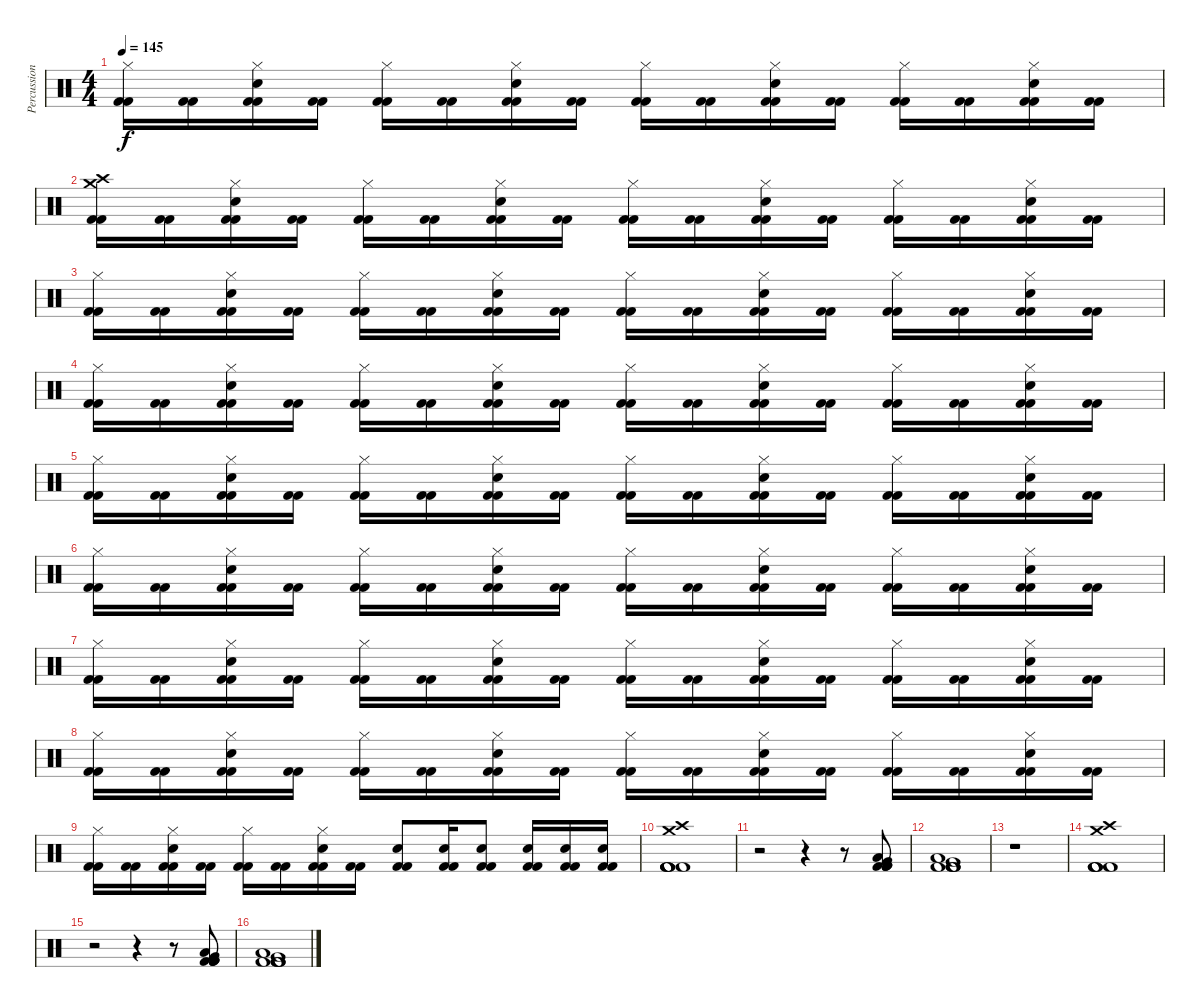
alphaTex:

\track ("Percussion" "Percussion") {instrument percussion}
\staff {score}
\articulation defaults
\ts (4 4)
\tempo 145
\clef neutral
\ks c
("Hi-Hat (closed)" "Kick (hit) 2" "Kick (hit) 2").16{dy f} ("Kick (hit) 2" "Kick (hit) 2").16 ("Hi-Hat (closed)" "Snare (hit) 2" "Kick (hit) 2" "Kick (hit) 2").16 ("Kick (hit) 2" "Kick (hit) 2").16 ("Hi-Hat (closed)" "Kick (hit) 2" "Kick (hit) 2").16 ("Kick (hit) 2" "Kick (hit) 2").16 ("Hi-Hat (closed)" "Snare (hit) 2" "Kick (hit) 2" "Kick (hit) 2").16 ("Kick (hit) 2" "Kick (hit) 2").16 ("Hi-Hat (closed)" "Kick (hit) 2" "Kick (hit) 2").16 ("Kick (hit) 2" "Kick (hit) 2").16 ("Hi-Hat (closed)" "Snare (hit) 2" "Kick (hit) 2" "Kick (hit) 2").16 ("Kick (hit) 2" "Kick (hit) 2").16 ("Hi-Hat (closed)" "Kick (hit) 2" "Kick (hit) 2").16 ("Kick (hit) 2" "Kick (hit) 2").16 ("Hi-Hat (closed)" "Snare (hit) 2" "Kick (hit) 2" "Kick (hit) 2").16 ("Kick (hit) 2" "Kick (hit) 2").16 |
("Crash high (hit)" "Crash medium (hit)" "Kick (hit) 2" "Kick (hit) 2").16 ("Kick (hit) 2" "Kick (hit) 2").16 ("Hi-Hat (closed)" "Snare (hit) 2" "Kick (hit) 2" "Kick (hit) 2").16 ("Kick (hit) 2" "Kick (hit) 2").16 ("Hi-Hat (closed)" "Kick (hit) 2" "Kick (hit) 2").16 ("Kick (hit) 2" "Kick (hit) 2").16 ("Hi-Hat (closed)" "Snare (hit) 2" "Kick (hit) 2" "Kick (hit) 2").16 ("Kick (hit) 2" "Kick (hit) 2").16 ("Hi-Hat (closed)" "Kick (hit) 2" "Kick (hit) 2").16 ("Kick (hit) 2" "Kick (hit) 2").16 ("Hi-Hat (closed)" "Snare (hit) 2" "Kick (hit) 2" "Kick (hit) 2").16 ("Kick (hit) 2" "Kick (hit) 2").16 ("Hi-Hat (closed)" "Kick (hit) 2" "Kick (hit) 2").16 ("Kick (hit) 2" "Kick (hit) 2").16 ("Hi-Hat (closed)" "Snare (hit) 2" "Kick (hit) 2" "Kick (hit) 2").16 ("Kick (hit) 2" "Kick (hit) 2").16 |
("Hi-Hat (closed)" "Kick (hit) 2" "Kick (hit) 2").16 ("Kick (hit) 2" "Kick (hit) 2").16 ("Hi-Hat (closed)" "Snare (hit) 2" "Kick (hit) 2" "Kick (hit) 2").16 ("Kick (hit) 2" "Kick (hit) 2").16 ("Hi-Hat (closed)" "Kick (hit) 2" "Kick (hit) 2").16 ("Kick (hit) 2" "Kick (hit) 2").16 ("Hi-Hat (closed)" "Snare (hit) 2" "Kick (hit) 2" "Kick (hit) 2").16 ("Kick (hit) 2" "Kick (hit) 2").16 ("Hi-Hat (closed)" "Kick (hit) 2" "Kick (hit) 2").16 ("Kick (hit) 2" "Kick (hit) 2").16 ("Hi-Hat (closed)" "Snare (hit) 2" "Kick (hit) 2" "Kick (hit) 2").16 ("Kick (hit) 2" "Kick (hit) 2").16 ("Hi-Hat (closed)" "Kick (hit) 2" "Kick (hit) 2").16 ("Kick (hit) 2" "Kick (hit) 2").16 ("Hi-Hat (closed)" "Snare (hit) 2" "Kick (hit) 2" "Kick (hit) 2").16 ("Kick (hit) 2" "Kick (hit) 2").16 |
("Hi-Hat (closed)" "Kick (hit) 2" "Kick (hit) 2").16 ("Kick (hit) 2" "Kick (hit) 2").16 ("Hi-Hat (closed)" "Snare (hit) 2" "Kick (hit) 2" "Kick (hit) 2").16 ("Kick (hit) 2" "Kick (hit) 2").16 ("Hi-Hat (closed)" "Kick (hit) 2" "Kick (hit) 2").16 ("Kick (hit) 2" "Kick (hit) 2").16 ("Hi-Hat (closed)" "Snare (hit) 2" "Kick (hit) 2" "Kick (hit) 2").16 ("Kick (hit) 2" "Kick (hit) 2").16 ("Hi-Hat (closed)" "Kick (hit) 2" "Kick (hit) 2").16 ("Kick (hit) 2" "Kick (hit) 2").16 ("Hi-Hat (closed)" "Snare (hit) 2" "Kick (hit) 2" "Kick (hit) 2").16 ("Kick (hit) 2" "Kick (hit) 2").16 ("Hi-Hat (closed)" "Kick (hit) 2" "Kick (hit) 2").16 ("Kick (hit) 2" "Kick (hit) 2").16 ("Hi-Hat (closed)" "Snare (hit) 2" "Kick (hit) 2" "Kick (hit) 2").16 ("Kick (hit) 2" "Kick (hit) 2").16 |
("Hi-Hat (closed)" "Kick (hit) 2" "Kick (hit) 2").16 ("Kick (hit) 2" "Kick (hit) 2").16 ("Hi-Hat (closed)" "Snare (hit) 2" "Kick (hit) 2" "Kick (hit) 2").16 ("Kick (hit) 2" "Kick (hit) 2").16 ("Hi-Hat (closed)" "Kick (hit) 2" "Kick (hit) 2").16 ("Kick (hit) 2" "Kick (hit) 2").16 ("Hi-Hat (closed)" "Snare (hit) 2" "Kick (hit) 2" "Kick (hit) 2").16 ("Kick (hit) 2" "Kick (hit) 2").16 ("Hi-Hat (closed)" "Kick (hit) 2" "Kick (hit) 2").16 ("Kick (hit) 2" "Kick (hit) 2").16 ("Hi-Hat (closed)" "Snare (hit) 2" "Kick (hit) 2" "Kick (hit) 2").16 ("Kick (hit) 2" "Kick (hit) 2").16 ("Hi-Hat (closed)" "Kick (hit) 2" "Kick (hit) 2").16 ("Kick (hit) 2" "Kick (hit) 2").16 ("Hi-Hat (closed)" "Snare (hit) 2" "Kick (hit) 2" "Kick (hit) 2").16 ("Kick (hit) 2" "Kick (hit) 2").16 |
("Hi-Hat (closed)" "Kick (hit) 2" "Kick (hit) 2").16 ("Kick (hit) 2" "Kick (hit) 2").16 ("Hi-Hat (closed)" "Snare (hit) 2" "Kick (hit) 2" "Kick (hit) 2").16 ("Kick (hit) 2" "Kick (hit) 2").16 ("Hi-Hat (closed)" "Kick (hit) 2" "Kick (hit) 2").16 ("Kick (hit) 2" "Kick (hit) 2").16 ("Hi-Hat (closed)" "Snare (hit) 2" "Kick (hit) 2" "Kick (hit) 2").16 ("Kick (hit) 2" "Kick (hit) 2").16 ("Hi-Hat (closed)" "Kick (hit) 2" "Kick (hit) 2").16 ("Kick (hit) 2" "Kick (hit) 2").16 ("Hi-Hat (closed)" "Snare (hit) 2" "Kick (hit) 2" "Kick (hit) 2").16 ("Kick (hit) 2" "Kick (hit) 2").16 ("Hi-Hat (closed)" "Kick (hit) 2" "Kick (hit) 2").16 ("Kick (hit) 2" "Kick (hit) 2").16 ("Hi-Hat (closed)" "Snare (hit) 2" "Kick (hit) 2" "Kick (hit) 2").16 ("Kick (hit) 2" "Kick (hit) 2").16 |
("Hi-Hat (closed)" "Kick (hit) 2" "Kick (hit) 2").16 ("Kick (hit) 2" "Kick (hit) 2").16 ("Hi-Hat (closed)" "Snare (hit) 2" "Kick (hit) 2" "Kick (hit) 2").16 ("Kick (hit) 2" "Kick (hit) 2").16 ("Hi-Hat (closed)" "Kick (hit) 2" "Kick (hit) 2").16 ("Kick (hit) 2" "Kick (hit) 2").16 ("Hi-Hat (closed)" "Snare (hit) 2" "Kick (hit) 2" "Kick (hit) 2").16 ("Kick (hit) 2" "Kick (hit) 2").16 ("Hi-Hat (closed)" "Kick (hit) 2" "Kick (hit) 2").16 ("Kick (hit) 2" "Kick (hit) 2").16 ("Hi-Hat (closed)" "Snare (hit) 2" "Kick (hit) 2" "Kick (hit) 2").16 ("Kick (hit) 2" "Kick (hit) 2").16 ("Hi-Hat (closed)" "Kick (hit) 2" "Kick (hit) 2").16 ("Kick (hit) 2" "Kick (hit) 2").16 ("Hi-Hat (closed)" "Snare (hit) 2" "Kick (hit) 2" "Kick (hit) 2").16 ("Kick (hit) 2" "Kick (hit) 2").16 |
("Hi-Hat (closed)" "Kick (hit) 2" "Kick (hit) 2").16 ("Kick (hit) 2" "Kick (hit) 2").16 ("Hi-Hat (closed)" "Snare (hit) 2" "Kick (hit) 2" "Kick (hit) 2").16 ("Kick (hit) 2" "Kick (hit) 2").16 ("Hi-Hat (closed)" "Kick (hit) 2" "Kick (hit) 2").16 ("Kick (hit) 2" "Kick (hit) 2").16 ("Hi-Hat (closed)" "Snare (hit) 2" "Kick (hit) 2" "Kick (hit) 2").16 ("Kick (hit) 2" "Kick (hit) 2").16 ("Hi-Hat (closed)" "Kick (hit) 2" "Kick (hit) 2").16 ("Kick (hit) 2" "Kick (hit) 2").16 ("Hi-Hat (closed)" "Snare (hit) 2" "Kick (hit) 2" "Kick (hit) 2").16 ("Kick (hit) 2" "Kick (hit) 2").16 ("Hi-Hat (closed)" "Kick (hit) 2" "Kick (hit) 2").16 ("Kick (hit) 2" "Kick (hit) 2").16 ("Hi-Hat (closed)" "Snare (hit) 2" "Kick (hit) 2" "Kick (hit) 2").16 ("Kick (hit) 2" "Kick (hit) 2").16 |
("Hi-Hat (closed)" "Kick (hit) 2" "Kick (hit) 2").16 ("Kick (hit) 2" "Kick (hit) 2").16 ("Hi-Hat (closed)" "Snare (hit) 2" "Kick (hit) 2" "Kick (hit) 2").16 ("Kick (hit) 2" "Kick (hit) 2").16 ("Hi-Hat (closed)" "Kick (hit) 2" "Kick (hit) 2").16 ("Kick (hit) 2" "Kick (hit) 2").16 ("Hi-Hat (closed)" "Snare (hit) 2" "Kick (hit) 2" "Kick (hit) 2").16 ("Kick (hit) 2" "Kick (hit) 2").16 ("Snare (hit) 2" "Kick (hit) 2" "Kick (hit) 2").8 ("Snare (hit) 2" "Kick (hit) 2" "Kick (hit) 2").16 ("Snare (hit) 2" "Kick (hit) 2" "Kick (hit) 2").8 ("Snare (hit) 2" "Kick (hit) 2" "Kick (hit) 2").16 ("Snare (hit) 2" "Kick (hit) 2" "Kick (hit) 2").16 ("Snare (hit) 2" "Kick (hit) 2" "Kick (hit) 2").16 |
("Crash high (hit)" "Crash medium (hit)" "Kick (hit) 2" "Kick (hit) 2" "Kick (hit) 2" "Kick (hit) 2").1 |
r.2 r.4 r.8 ("Low Tom (hit)" "Very Low Tom (hit)" "Kick (hit) 2" "Kick (hit) 2" "Kick (hit) 2" "Kick (hit) 2").8 |
("Low Tom (hit)" "Very Low Tom (hit)" "Kick (hit) 2" "Kick (hit) 2" "Kick (hit) 2" "Kick (hit) 2").1 |
r.1 |
("Crash high (hit)" "Crash medium (hit)" "Kick (hit) 2" "Kick (hit) 2" "Kick (hit) 2" "Kick (hit) 2").1 |
r.2 r.4 r.8 ("Low Tom (hit)" "Very Low Tom (hit)" "Kick (hit) 2" "Kick (hit) 2" "Kick (hit) 2" "Kick (hit) 2").8 |
("Low Tom (hit)" "Very Low Tom (hit)" "Kick (hit) 2" "Kick (hit) 2" "Kick (hit) 2" "Kick (hit) 2").1
